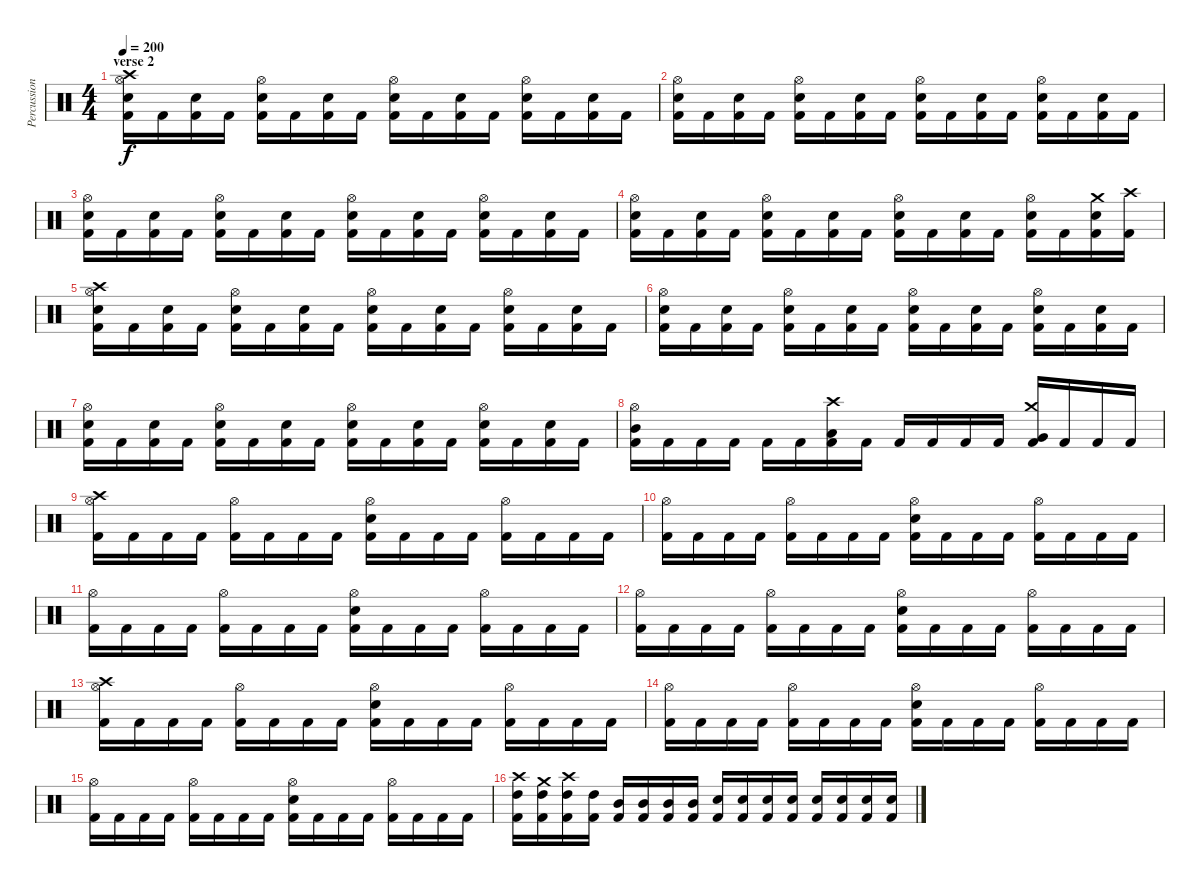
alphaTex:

\track ("Percussions" "Percussion") {instrument percussion}
\staff {score}
\articulation defaults
\ts (4 4)
\section ("" "verse 2")
\tempo 200
\clef neutral
\ks c
("Hi-Hat (open)" "Crash high (hit)" "Electric Snare (hit)" "Kick (hit) 2").16{dy f} "Kick (hit) 2".16 ("Electric Snare (hit)" "Kick (hit) 2").16 "Kick (hit) 2".16 ("Hi-Hat (open)" "Electric Snare (hit)" "Kick (hit) 2").16 "Kick (hit) 2".16 ("Electric Snare (hit)" "Kick (hit) 2").16 "Kick (hit) 2".16 ("Hi-Hat (open)" "Electric Snare (hit)" "Kick (hit) 2").16 "Kick (hit) 2".16 ("Electric Snare (hit)" "Kick (hit) 2").16 "Kick (hit) 2".16 ("Hi-Hat (open)" "Electric Snare (hit)" "Kick (hit) 2").16 "Kick (hit) 2".16 ("Electric Snare (hit)" "Kick (hit) 2").16 "Kick (hit) 2".16 |
("Hi-Hat (open)" "Electric Snare (hit)" "Kick (hit) 2").16 "Kick (hit) 2".16 ("Electric Snare (hit)" "Kick (hit) 2").16 "Kick (hit) 2".16 ("Hi-Hat (open)" "Electric Snare (hit)" "Kick (hit) 2").16 "Kick (hit) 2".16 ("Electric Snare (hit)" "Kick (hit) 2").16 "Kick (hit) 2".16 ("Hi-Hat (open)" "Electric Snare (hit)" "Kick (hit) 2").16 "Kick (hit) 2".16 ("Electric Snare (hit)" "Kick (hit) 2").16 "Kick (hit) 2".16 ("Hi-Hat (open)" "Electric Snare (hit)" "Kick (hit) 2").16 "Kick (hit) 2".16 ("Electric Snare (hit)" "Kick (hit) 2").16 "Kick (hit) 2".16 |
("Hi-Hat (open)" "Electric Snare (hit)" "Kick (hit) 2").16 "Kick (hit) 2".16 ("Electric Snare (hit)" "Kick (hit) 2").16 "Kick (hit) 2".16 ("Hi-Hat (open)" "Electric Snare (hit)" "Kick (hit) 2").16 "Kick (hit) 2".16 ("Electric Snare (hit)" "Kick (hit) 2").16 "Kick (hit) 2".16 ("Hi-Hat (open)" "Electric Snare (hit)" "Kick (hit) 2").16 "Kick (hit) 2".16 ("Electric Snare (hit)" "Kick (hit) 2").16 "Kick (hit) 2".16 ("Hi-Hat (open)" "Electric Snare (hit)" "Kick (hit) 2").16 "Kick (hit) 2".16 ("Electric Snare (hit)" "Kick (hit) 2").16 "Kick (hit) 2".16 |
("Hi-Hat (open)" "Electric Snare (hit)" "Kick (hit) 2").16 "Kick (hit) 2".16 ("Electric Snare (hit)" "Kick (hit) 2").16 "Kick (hit) 2".16 ("Hi-Hat (open)" "Electric Snare (hit)" "Kick (hit) 2").16 "Kick (hit) 2".16 ("Electric Snare (hit)" "Kick (hit) 2").16 "Kick (hit) 2".16 ("Hi-Hat (open)" "Electric Snare (hit)" "Kick (hit) 2").16 "Kick (hit) 2".16 ("Electric Snare (hit)" "Kick (hit) 2").16 "Kick (hit) 2".16 ("Hi-Hat (open)" "Electric Snare (hit)" "Kick (hit) 2").16 "Kick (hit) 2".16 ("Crash medium (hit)" "Electric Snare (hit)" "Kick (hit) 2").16 ("Crash high (hit)" "Kick (hit) 2").16 |
("Hi-Hat (open)" "Crash high (hit)" "Electric Snare (hit)" "Kick (hit) 2").16 "Kick (hit) 2".16 ("Electric Snare (hit)" "Kick (hit) 2").16 "Kick (hit) 2".16 ("Hi-Hat (open)" "Electric Snare (hit)" "Kick (hit) 2").16 "Kick (hit) 2".16 ("Electric Snare (hit)" "Kick (hit) 2").16 "Kick (hit) 2".16 ("Hi-Hat (open)" "Electric Snare (hit)" "Kick (hit) 2").16 "Kick (hit) 2".16 ("Electric Snare (hit)" "Kick (hit) 2").16 "Kick (hit) 2".16 ("Hi-Hat (open)" "Electric Snare (hit)" "Kick (hit) 2").16 "Kick (hit) 2".16 ("Electric Snare (hit)" "Kick (hit) 2").16 "Kick (hit) 2".16 |
("Hi-Hat (open)" "Electric Snare (hit)" "Kick (hit) 2").16 "Kick (hit) 2".16 ("Electric Snare (hit)" "Kick (hit) 2").16 "Kick (hit) 2".16 ("Hi-Hat (open)" "Electric Snare (hit)" "Kick (hit) 2").16 "Kick (hit) 2".16 ("Electric Snare (hit)" "Kick (hit) 2").16 "Kick (hit) 2".16 ("Hi-Hat (open)" "Electric Snare (hit)" "Kick (hit) 2").16 "Kick (hit) 2".16 ("Electric Snare (hit)" "Kick (hit) 2").16 "Kick (hit) 2".16 ("Hi-Hat (open)" "Electric Snare (hit)" "Kick (hit) 2").16 "Kick (hit) 2".16 ("Electric Snare (hit)" "Kick (hit) 2").16 "Kick (hit) 2".16 |
("Hi-Hat (open)" "Electric Snare (hit)" "Kick (hit) 2").16 "Kick (hit) 2".16 ("Electric Snare (hit)" "Kick (hit) 2").16 "Kick (hit) 2".16 ("Hi-Hat (open)" "Electric Snare (hit)" "Kick (hit) 2").16 "Kick (hit) 2".16 ("Electric Snare (hit)" "Kick (hit) 2").16 "Kick (hit) 2".16 ("Hi-Hat (open)" "Electric Snare (hit)" "Kick (hit) 2").16 "Kick (hit) 2".16 ("Electric Snare (hit)" "Kick (hit) 2").16 "Kick (hit) 2".16 ("Hi-Hat (open)" "Electric Snare (hit)" "Kick (hit) 2").16 "Kick (hit) 2".16 ("Electric Snare (hit)" "Kick (hit) 2").16 "Kick (hit) 2".16 |
("Hi-Hat (open)" "Mid Tom (hit)" "Kick (hit) 2").16 "Kick (hit) 2".16 "Kick (hit) 2".16 "Kick (hit) 2".16 "Kick (hit) 2".16 "Kick (hit) 2".16 ("Crash high (hit)" "Low Tom (hit)" "Kick (hit) 2").16 "Kick (hit) 2".16 "Kick (hit) 2".16 "Kick (hit) 2".16 "Kick (hit) 2".16 "Kick (hit) 2".16 ("Crash medium (hit)" "Very Low Tom (hit)" "Kick (hit) 2").16 "Kick (hit) 2".16 "Kick (hit) 2".16 "Kick (hit) 2".16 |
("Crash high (hit)" "Hi-Hat (open)" "Kick (hit) 2").16 "Kick (hit) 2".16 "Kick (hit) 2".16 "Kick (hit) 2".16 ("Hi-Hat (open)" "Kick (hit) 2").16 "Kick (hit) 2".16 "Kick (hit) 2".16 "Kick (hit) 2".16 ("Hi-Hat (open)" "Electric Snare (hit)" "Kick (hit) 2").16 "Kick (hit) 2".16 "Kick (hit) 2".16 "Kick (hit) 2".16 ("Hi-Hat (open)" "Kick (hit) 2").16 "Kick (hit) 2".16 "Kick (hit) 2".16 "Kick (hit) 2".16 |
("Hi-Hat (open)" "Kick (hit) 2").16 "Kick (hit) 2".16 "Kick (hit) 2".16 "Kick (hit) 2".16 ("Hi-Hat (open)" "Kick (hit) 2").16 "Kick (hit) 2".16 "Kick (hit) 2".16 "Kick (hit) 2".16 ("Hi-Hat (open)" "Electric Snare (hit)" "Kick (hit) 2").16 "Kick (hit) 2".16 "Kick (hit) 2".16 "Kick (hit) 2".16 ("Hi-Hat (open)" "Kick (hit) 2").16 "Kick (hit) 2".16 "Kick (hit) 2".16 "Kick (hit) 2".16 |
("Hi-Hat (open)" "Kick (hit) 2").16 "Kick (hit) 2".16 "Kick (hit) 2".16 "Kick (hit) 2".16 ("Hi-Hat (open)" "Kick (hit) 2").16 "Kick (hit) 2".16 "Kick (hit) 2".16 "Kick (hit) 2".16 ("Hi-Hat (open)" "Electric Snare (hit)" "Kick (hit) 2").16 "Kick (hit) 2".16 "Kick (hit) 2".16 "Kick (hit) 2".16 ("Hi-Hat (open)" "Kick (hit) 2").16 "Kick (hit) 2".16 "Kick (hit) 2".16 "Kick (hit) 2".16 |
("Hi-Hat (open)" "Kick (hit) 2").16 "Kick (hit) 2".16 "Kick (hit) 2".16 "Kick (hit) 2".16 ("Hi-Hat (open)" "Kick (hit) 2").16 "Kick (hit) 2".16 "Kick (hit) 2".16 "Kick (hit) 2".16 ("Hi-Hat (open)" "Electric Snare (hit)" "Kick (hit) 2").16 "Kick (hit) 2".16 "Kick (hit) 2".16 "Kick (hit) 2".16 ("Hi-Hat (open)" "Kick (hit) 2").16 "Kick (hit) 2".16 "Kick (hit) 2".16 "Kick (hit) 2".16 |
("Crash high (hit)" "Hi-Hat (open)" "Kick (hit) 2").16 "Kick (hit) 2".16 "Kick (hit) 2".16 "Kick (hit) 2".16 ("Hi-Hat (open)" "Kick (hit) 2").16 "Kick (hit) 2".16 "Kick (hit) 2".16 "Kick (hit) 2".16 ("Hi-Hat (open)" "Electric Snare (hit)" "Kick (hit) 2").16 "Kick (hit) 2".16 "Kick (hit) 2".16 "Kick (hit) 2".16 ("Hi-Hat (open)" "Kick (hit) 2").16 "Kick (hit) 2".16 "Kick (hit) 2".16 "Kick (hit) 2".16 |
("Hi-Hat (open)" "Kick (hit) 2").16 "Kick (hit) 2".16 "Kick (hit) 2".16 "Kick (hit) 2".16 ("Hi-Hat (open)" "Kick (hit) 2").16 "Kick (hit) 2".16 "Kick (hit) 2".16 "Kick (hit) 2".16 ("Hi-Hat (open)" "Electric Snare (hit)" "Kick (hit) 2").16 "Kick (hit) 2".16 "Kick (hit) 2".16 "Kick (hit) 2".16 ("Hi-Hat (open)" "Kick (hit) 2").16 "Kick (hit) 2".16 "Kick (hit) 2".16 "Kick (hit) 2".16 |
("Hi-Hat (open)" "Kick (hit) 2").16 "Kick (hit) 2".16 "Kick (hit) 2".16 "Kick (hit) 2".16 ("Hi-Hat (open)" "Kick (hit) 2").16 "Kick (hit) 2".16 "Kick (hit) 2".16 "Kick (hit) 2".16 ("Hi-Hat (open)" "Electric Snare (hit)" "Kick (hit) 2").16 "Kick (hit) 2".16 "Kick (hit) 2".16 "Kick (hit) 2".16 ("Hi-Hat (open)" "Kick (hit) 2").16 "Kick (hit) 2".16 "Kick (hit) 2".16 "Kick (hit) 2".16 |
("Crash high (hit)" "High Tom (hit)" "Kick (hit) 2").16 ("Crash medium (hit)" "High Tom (hit)" "Kick (hit) 2").16 ("Crash high (hit)" "High Tom (hit)" "Kick (hit) 2").16 ("High Tom (hit)" "Kick (hit) 2").16 ("Mid Tom (hit)" "Kick (hit) 2").16 ("Mid Tom (hit)" "Kick (hit) 2").16 ("Mid Tom (hit)" "Kick (hit) 2").16 ("Mid Tom (hit)" "Kick (hit) 2").16 ("Electric Snare (hit)" "Kick (hit) 2").16 ("Electric Snare (hit)" "Kick (hit) 2").16 ("Electric Snare (hit)" "Kick (hit) 2").16 ("Electric Snare (hit)" "Kick (hit) 2").16 ("Electric Snare (hit)" "Kick (hit) 2").16 ("Electric Snare (hit)" "Kick (hit) 2").16 ("Electric Snare (hit)" "Kick (hit) 2").16 ("Electric Snare (hit)" "Kick (hit) 2").16
